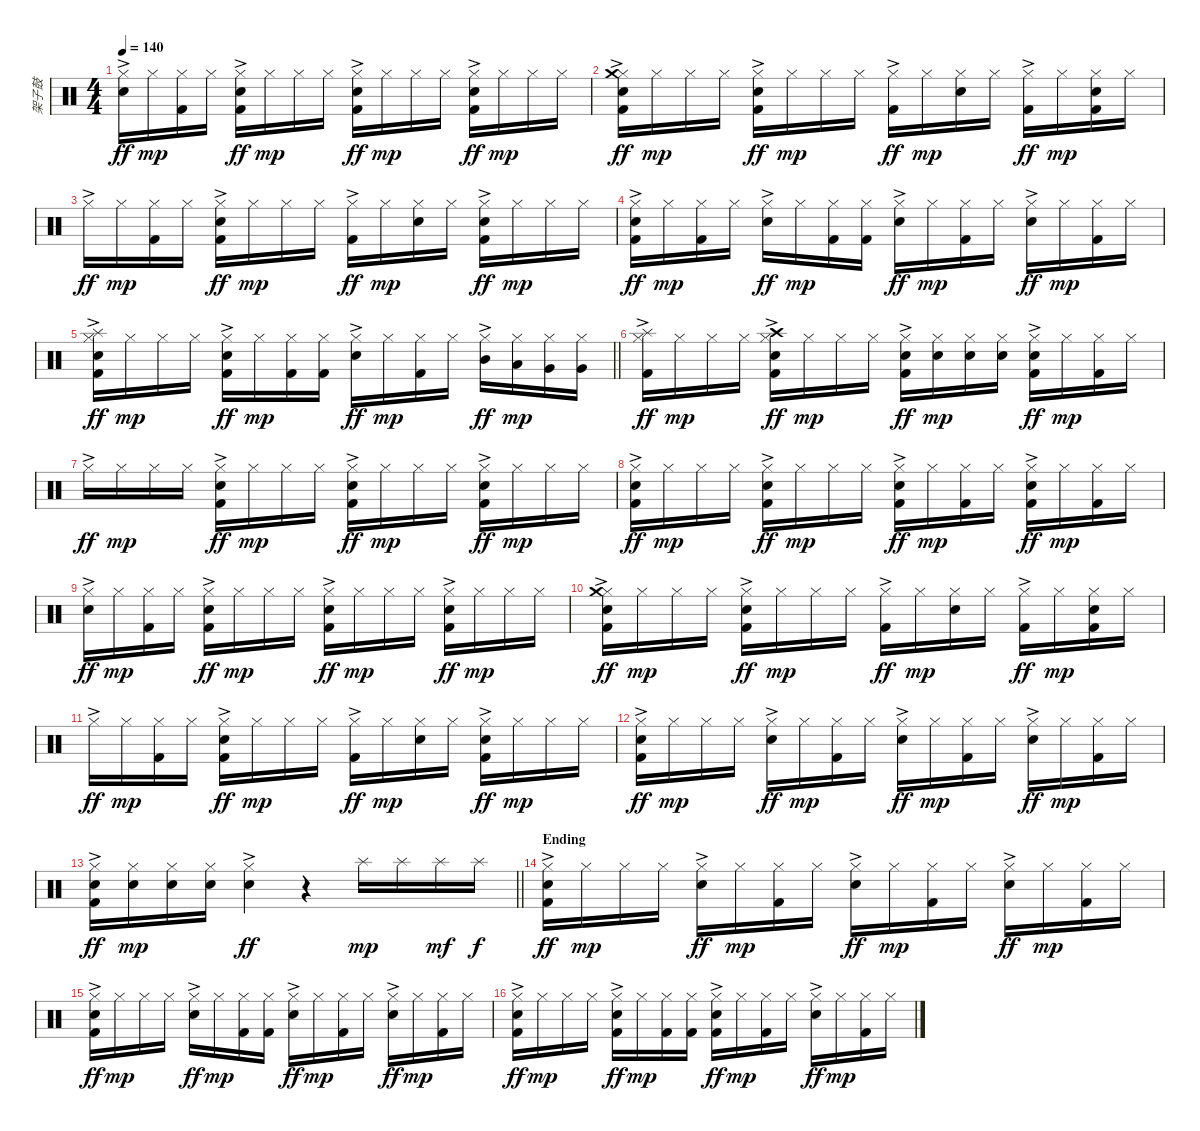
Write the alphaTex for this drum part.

\track ("架子鼓" "架子鼓") {instrument percussion}
\staff {score}
\articulation defaults
\ts (4 4)
\tempo 140
\clef neutral
\ks c
("Hi-Hat (closed)"{ac} "Electric Snare (hit)").16{dy ff} "Hi-Hat (closed)".16{dy mp} ("Hi-Hat (closed)" "Kick (hit) 2").16 "Hi-Hat (closed)".16 ("Hi-Hat (closed)"{ac} "Electric Snare (hit)" "Kick (hit) 2").16{dy ff} "Hi-Hat (closed)".16{dy mp} "Hi-Hat (closed)".16 "Hi-Hat (closed)".16 ("Hi-Hat (closed)"{ac} "Electric Snare (hit)" "Kick (hit) 2").16{dy ff} "Hi-Hat (closed)".16{dy mp} "Hi-Hat (closed)".16 "Hi-Hat (closed)".16 ("Hi-Hat (closed)"{ac} "Electric Snare (hit)" "Kick (hit) 2").16{dy ff} "Hi-Hat (closed)".16{dy mp} "Hi-Hat (closed)".16 "Hi-Hat (closed)".16 |
("Hi-Hat (closed)"{ac} "Electric Snare (hit)" "Crash medium (hit)" "Kick (hit) 2").16{dy ff} "Hi-Hat (closed)".16{dy mp} "Hi-Hat (closed)".16 "Hi-Hat (closed)".16 ("Hi-Hat (closed)"{ac} "Electric Snare (hit)" "Kick (hit) 2").16{dy ff} "Hi-Hat (closed)".16{dy mp} "Hi-Hat (closed)".16 "Hi-Hat (closed)".16 ("Hi-Hat (closed)"{ac} "Kick (hit) 2").16{dy ff} "Hi-Hat (closed)".16{dy mp} ("Hi-Hat (closed)" "Electric Snare (hit)").16 "Hi-Hat (closed)".16 ("Hi-Hat (closed)"{ac} "Kick (hit) 2").16{dy ff} "Hi-Hat (closed)".16{dy mp} ("Hi-Hat (closed)" "Electric Snare (hit)" "Kick (hit) 2").16 "Hi-Hat (closed)".16 |
"Hi-Hat (closed)"{ac}.16{dy ff} "Hi-Hat (closed)".16{dy mp} ("Hi-Hat (closed)" "Kick (hit) 2").16 "Hi-Hat (closed)".16 ("Hi-Hat (closed)"{ac} "Electric Snare (hit)" "Kick (hit) 2").16{dy ff} "Hi-Hat (closed)".16{dy mp} "Hi-Hat (closed)".16 "Hi-Hat (closed)".16 ("Hi-Hat (closed)"{ac} "Kick (hit) 2").16{dy ff} "Hi-Hat (closed)".16{dy mp} ("Hi-Hat (closed)" "Electric Snare (hit)").16 "Hi-Hat (closed)".16 ("Hi-Hat (closed)"{ac} "Electric Snare (hit)" "Kick (hit) 2").16{dy ff} "Hi-Hat (closed)".16{dy mp} "Hi-Hat (closed)".16 "Hi-Hat (closed)".16 |
("Hi-Hat (closed)"{ac} "Electric Snare (hit)" "Kick (hit) 2").16{dy ff} "Hi-Hat (closed)".16{dy mp} ("Hi-Hat (closed)" "Kick (hit) 2").16 "Hi-Hat (closed)".16 ("Hi-Hat (closed)"{ac} "Electric Snare (hit)").16{dy ff} "Hi-Hat (closed)".16{dy mp} ("Hi-Hat (closed)" "Kick (hit) 2").16 ("Hi-Hat (closed)" "Kick (hit) 2").16 ("Hi-Hat (closed)"{ac} "Electric Snare (hit)").16{dy ff} "Hi-Hat (closed)".16{dy mp} ("Hi-Hat (closed)" "Kick (hit) 2").16 "Hi-Hat (closed)".16 ("Hi-Hat (closed)"{ac} "Electric Snare (hit)").16{dy ff} "Hi-Hat (closed)".16{dy mp} ("Hi-Hat (closed)" "Kick (hit) 2").16 "Hi-Hat (closed)".16 |
\barLineRight lightlight
("Hi-Hat (closed)"{ac} "Electric Snare (hit)" "Splash (hit)" "Kick (hit) 2").16{dy ff} "Hi-Hat (closed)".16{dy mp} "Hi-Hat (closed)".16 "Hi-Hat (closed)".16 ("Hi-Hat (closed)"{ac} "Electric Snare (hit)" "Kick (hit) 2").16{dy ff} "Hi-Hat (closed)".16{dy mp} ("Hi-Hat (closed)" "Kick (hit) 2").16 ("Hi-Hat (closed)" "Kick (hit) 2").16 ("Hi-Hat (closed)"{ac} "Electric Snare (hit)").16{dy ff} "Hi-Hat (closed)".16{dy mp} ("Hi-Hat (closed)" "Kick (hit) 2").16 "Hi-Hat (closed)".16 ("Hi-Hat (closed)"{ac} "Mid Tom (hit)").16{dy ff} ("Hi-Hat (closed)" "Low Tom (hit)").16{dy mp} ("Hi-Hat (closed)" "Very Low Tom (hit)").16 ("Hi-Hat (closed)" "Very Low Tom (hit)").16 |
("Hi-Hat (closed)"{ac} "Splash (hit)" "Kick (hit) 2").16{dy ff} "Hi-Hat (closed)".16{dy mp} "Hi-Hat (closed)".16 "Hi-Hat (closed)".16 ("Hi-Hat (closed)"{ac} "Electric Snare (hit)" "Crash high (hit)" "Kick (hit) 2").16{dy ff} "Hi-Hat (closed)".16{dy mp} "Hi-Hat (closed)".16 "Hi-Hat (closed)".16 ("Hi-Hat (closed)"{ac} "Electric Snare (hit)" "Kick (hit) 2").16{dy ff} ("Hi-Hat (closed)" "Electric Snare (hit)").16{dy mp} ("Hi-Hat (closed)" "Electric Snare (hit)").16 ("Hi-Hat (closed)" "Electric Snare (hit)").16 ("Hi-Hat (closed)"{ac} "Electric Snare (hit)" "Kick (hit) 2").16{dy ff} "Hi-Hat (closed)".16{dy mp} ("Hi-Hat (closed)" "Kick (hit) 2").16 "Hi-Hat (closed)".16 |
"Hi-Hat (closed)"{ac}.16{dy ff} "Hi-Hat (closed)".16{dy mp} "Hi-Hat (closed)".16 "Hi-Hat (closed)".16 ("Hi-Hat (closed)"{ac} "Electric Snare (hit)" "Kick (hit) 2").16{dy ff} "Hi-Hat (closed)".16{dy mp} "Hi-Hat (closed)".16 "Hi-Hat (closed)".16 ("Hi-Hat (closed)"{ac} "Electric Snare (hit)" "Kick (hit) 2").16{dy ff} "Hi-Hat (closed)".16{dy mp} "Hi-Hat (closed)".16 "Hi-Hat (closed)".16 ("Hi-Hat (closed)"{ac} "Electric Snare (hit)" "Kick (hit) 2").16{dy ff} "Hi-Hat (closed)".16{dy mp} "Hi-Hat (closed)".16 "Hi-Hat (closed)".16 |
("Hi-Hat (closed)"{ac} "Electric Snare (hit)" "Kick (hit) 2").16{dy ff} "Hi-Hat (closed)".16{dy mp} "Hi-Hat (closed)".16 "Hi-Hat (closed)".16 ("Hi-Hat (closed)"{ac} "Electric Snare (hit)" "Kick (hit) 2").16{dy ff} "Hi-Hat (closed)".16{dy mp} "Hi-Hat (closed)".16 "Hi-Hat (closed)".16 ("Hi-Hat (closed)"{ac} "Electric Snare (hit)" "Kick (hit) 2").16{dy ff} "Hi-Hat (closed)".16{dy mp} ("Hi-Hat (closed)" "Kick (hit) 2").16 "Hi-Hat (closed)".16 ("Hi-Hat (closed)"{ac} "Electric Snare (hit)" "Kick (hit) 2").16{dy ff} "Hi-Hat (closed)".16{dy mp} ("Hi-Hat (closed)" "Kick (hit) 2").16 "Hi-Hat (closed)".16 |
("Hi-Hat (closed)"{ac} "Electric Snare (hit)").16{dy ff} "Hi-Hat (closed)".16{dy mp} ("Hi-Hat (closed)" "Kick (hit) 2").16 "Hi-Hat (closed)".16 ("Hi-Hat (closed)"{ac} "Electric Snare (hit)" "Kick (hit) 2").16{dy ff} "Hi-Hat (closed)".16{dy mp} "Hi-Hat (closed)".16 "Hi-Hat (closed)".16 ("Hi-Hat (closed)"{ac} "Electric Snare (hit)" "Kick (hit) 2").16{dy ff} "Hi-Hat (closed)".16{dy mp} "Hi-Hat (closed)".16 "Hi-Hat (closed)".16 ("Hi-Hat (closed)"{ac} "Electric Snare (hit)" "Kick (hit) 2").16{dy ff} "Hi-Hat (closed)".16{dy mp} "Hi-Hat (closed)".16 "Hi-Hat (closed)".16 |
("Hi-Hat (closed)"{ac} "Electric Snare (hit)" "Crash medium (hit)" "Kick (hit) 2").16{dy ff} "Hi-Hat (closed)".16{dy mp} "Hi-Hat (closed)".16 "Hi-Hat (closed)".16 ("Hi-Hat (closed)"{ac} "Electric Snare (hit)" "Kick (hit) 2").16{dy ff} "Hi-Hat (closed)".16{dy mp} "Hi-Hat (closed)".16 "Hi-Hat (closed)".16 ("Hi-Hat (closed)"{ac} "Kick (hit) 2").16{dy ff} "Hi-Hat (closed)".16{dy mp} ("Hi-Hat (closed)" "Electric Snare (hit)").16 "Hi-Hat (closed)".16 ("Hi-Hat (closed)"{ac} "Kick (hit) 2").16{dy ff} "Hi-Hat (closed)".16{dy mp} ("Hi-Hat (closed)" "Electric Snare (hit)" "Kick (hit) 2").16 "Hi-Hat (closed)".16 |
"Hi-Hat (closed)"{ac}.16{dy ff} "Hi-Hat (closed)".16{dy mp} ("Hi-Hat (closed)" "Kick (hit) 2").16 "Hi-Hat (closed)".16 ("Hi-Hat (closed)"{ac} "Electric Snare (hit)" "Kick (hit) 2").16{dy ff} "Hi-Hat (closed)".16{dy mp} "Hi-Hat (closed)".16 "Hi-Hat (closed)".16 ("Hi-Hat (closed)"{ac} "Kick (hit) 2").16{dy ff} "Hi-Hat (closed)".16{dy mp} ("Hi-Hat (closed)" "Electric Snare (hit)").16 "Hi-Hat (closed)".16 ("Hi-Hat (closed)"{ac} "Electric Snare (hit)" "Kick (hit) 2").16{dy ff} "Hi-Hat (closed)".16{dy mp} "Hi-Hat (closed)".16 "Hi-Hat (closed)".16 |
("Hi-Hat (closed)"{ac} "Electric Snare (hit)" "Kick (hit) 2").16{dy ff} "Hi-Hat (closed)".16{dy mp} "Hi-Hat (closed)".16 "Hi-Hat (closed)".16 ("Hi-Hat (closed)"{ac} "Electric Snare (hit)").16{dy ff} "Hi-Hat (closed)".16{dy mp} ("Hi-Hat (closed)" "Kick (hit) 2").16 "Hi-Hat (closed)".16 ("Hi-Hat (closed)"{ac} "Electric Snare (hit)").16{dy ff} "Hi-Hat (closed)".16{dy mp} ("Hi-Hat (closed)" "Kick (hit) 2").16 "Hi-Hat (closed)".16 ("Hi-Hat (closed)"{ac} "Electric Snare (hit)").16{dy ff} "Hi-Hat (closed)".16{dy mp} ("Hi-Hat (closed)" "Kick (hit) 2").16 "Hi-Hat (closed)".16 |
\barLineRight lightlight
("Hi-Hat (closed)"{ac} "Electric Snare (hit)" "Kick (hit) 2").16{dy ff} ("Hi-Hat (closed)" "Electric Snare (hit)").16{dy mp} ("Hi-Hat (closed)" "Electric Snare (hit)").16 ("Hi-Hat (closed)" "Electric Snare (hit)").16 ("Hi-Hat (closed)"{ac} "Electric Snare (hit)").4{dy ff} r.4 "Splash (hit)".16{dy mp} "Splash (hit)".16 "Splash (hit)".16{dy mf} "Splash (hit)".16{dy f} |
\section ("" "Ending")
("Hi-Hat (closed)"{ac} "Electric Snare (hit)" "Kick (hit) 2").16{dy ff} "Hi-Hat (closed)".16{dy mp} "Hi-Hat (closed)".16 "Hi-Hat (closed)".16 ("Hi-Hat (closed)"{ac} "Electric Snare (hit)").16{dy ff} "Hi-Hat (closed)".16{dy mp} ("Hi-Hat (closed)" "Kick (hit) 2").16 "Hi-Hat (closed)".16 ("Hi-Hat (closed)"{ac} "Electric Snare (hit)").16{dy ff} "Hi-Hat (closed)".16{dy mp} ("Hi-Hat (closed)" "Kick (hit) 2").16 "Hi-Hat (closed)".16 ("Hi-Hat (closed)"{ac} "Electric Snare (hit)").16{dy ff} "Hi-Hat (closed)".16{dy mp} ("Hi-Hat (closed)" "Kick (hit) 2").16 "Hi-Hat (closed)".16 |
("Hi-Hat (closed)"{ac} "Electric Snare (hit)" "Kick (hit) 2").16{dy ff} "Hi-Hat (closed)".16{dy mp} "Hi-Hat (closed)".16 "Hi-Hat (closed)".16 ("Hi-Hat (closed)"{ac} "Electric Snare (hit)").16{dy ff} "Hi-Hat (closed)".16{dy mp} ("Hi-Hat (closed)" "Kick (hit) 2").16 ("Hi-Hat (closed)" "Kick (hit) 2").16 ("Hi-Hat (closed)"{ac} "Electric Snare (hit)").16{dy ff} "Hi-Hat (closed)".16{dy mp} ("Hi-Hat (closed)" "Kick (hit) 2").16 "Hi-Hat (closed)".16 ("Hi-Hat (closed)"{ac} "Electric Snare (hit)").16{dy ff} "Hi-Hat (closed)".16{dy mp} ("Hi-Hat (closed)" "Kick (hit) 2").16 "Hi-Hat (closed)".16 |
("Hi-Hat (closed)"{ac} "Electric Snare (hit)" "Kick (hit) 2").16{dy ff} "Hi-Hat (closed)".16{dy mp} "Hi-Hat (closed)".16 "Hi-Hat (closed)".16 ("Hi-Hat (closed)"{ac} "Electric Snare (hit)" "Kick (hit) 2").16{dy ff} "Hi-Hat (closed)".16{dy mp} ("Hi-Hat (closed)" "Kick (hit) 2").16 ("Hi-Hat (closed)" "Kick (hit) 2").16 ("Hi-Hat (closed)"{ac} "Electric Snare (hit)" "Kick (hit) 2").16{dy ff} "Hi-Hat (closed)".16{dy mp} ("Hi-Hat (closed)" "Kick (hit) 2").16 "Hi-Hat (closed)".16 ("Hi-Hat (closed)"{ac} "Electric Snare (hit)").16{dy ff} "Hi-Hat (closed)".16{dy mp} ("Hi-Hat (closed)" "Kick (hit) 2").16 "Hi-Hat (closed)".16
